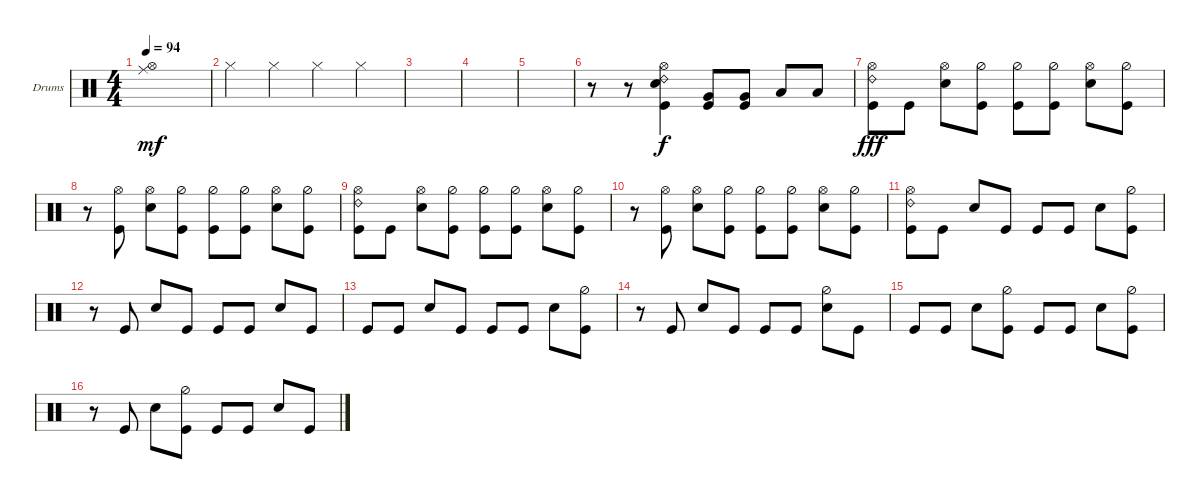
\defaultSystemsLayout 4
\bracketExtendMode groupsimilarinstruments
\firstSystemTrackNameOrientation horizontal
\otherSystemsTrackNameOrientation horizontal
\track ("Drumkit" "Drums") {instrument percussion}
\staff {score}
\articulation defaults
\ts (4 4)
\tempo 94
\clef neutral
\scale
0.333333
\ks c
("Ride (middle)" "Hi-Hat (open)").1{dy mf} |
\scale
0.333333 "Hi-Hat (closed)".4 "Hi-Hat (closed)".4 "Hi-Hat (closed)".4 "Hi-Hat (closed)".4 |
\scale
0.333333 |
\scale
0.333333 |
\scale
0.333333 |
\scale
0.333333 r.8 r.8 ("Kick (hit)" "Hi-Hat (open)" "Ride (bell) 2" "Snare (hit) 2").4{dy f} ("Very Low Tom (hit)" "Kick (hit)").8 ("Very Low Tom (hit)" "Kick (hit)").8 "Low Tom (hit)".8 "Low Tom (hit)".8 |
\scale
0.333333 ("Hi-Hat (open)" "Ride (bell) 2" "Kick (hit)").8{dy fff} "Kick (hit)".8 ("Hi-Hat (open)" "Snare (hit) 2").8 ("Hi-Hat (half)" "Kick (hit)").8 ("Hi-Hat (half)" "Kick (hit)").8 ("Hi-Hat (half)" "Kick (hit)").8 ("Hi-Hat (open)" "Snare (hit) 2").8 ("Hi-Hat (half)" "Kick (hit)").8 |
\scale
0.333333 r.8 ("Kick (hit)" "Hi-Hat (open)").8 ("Hi-Hat (open)" "Snare (hit) 2").8 ("Hi-Hat (half)" "Kick (hit)").8 ("Hi-Hat (half)" "Kick (hit)").8 ("Hi-Hat (half)" "Kick (hit)").8 ("Hi-Hat (open)" "Snare (hit) 2").8 ("Hi-Hat (half)" "Kick (hit)").8 |
\scale
0.333333 ("Hi-Hat (open)" "Ride (bell) 2" "Kick (hit)").8 "Kick (hit)".8 ("Hi-Hat (open)" "Snare (hit) 2").8 ("Hi-Hat (half)" "Kick (hit)").8 ("Hi-Hat (half)" "Kick (hit)").8 ("Hi-Hat (half)" "Kick (hit)").8 ("Hi-Hat (open)" "Snare (hit) 2").8 ("Hi-Hat (half)" "Kick (hit)").8 |
\scale
0.333333 r.8 ("Kick (hit)" "Hi-Hat (open)").8 ("Hi-Hat (open)" "Snare (hit) 2").8 ("Hi-Hat (half)" "Kick (hit)").8 ("Hi-Hat (half)" "Kick (hit)").8 ("Hi-Hat (half)" "Kick (hit)").8 ("Hi-Hat (open)" "Snare (hit) 2").8 ("Hi-Hat (half)" "Kick (hit)").8 |
\scale
0.333333 ("Hi-Hat (open)" "Ride (bell) 2" "Kick (hit)").8 "Kick (hit)".8 "Snare (hit) 2".8 "Kick (hit)".8 "Kick (hit)".8 "Kick (hit)".8 "Snare (hit) 2".8 ("Kick (hit)" "Hi-Hat (half)").8 |
\scale
0.333333 r.8 "Kick (hit)".8 "Snare (hit) 2".8 "Kick (hit)".8 "Kick (hit)".8 "Kick (hit)".8 "Snare (hit) 2".8 "Kick (hit)".8 |
\scale
0.333333 "Kick (hit)".8 "Kick (hit)".8 "Snare (hit) 2".8 "Kick (hit)".8 "Kick (hit)".8 "Kick (hit)".8 "Snare (hit) 2".8 ("Kick (hit)" "Hi-Hat (half)").8 |
\scale
0.333333 r.8 "Kick (hit)".8 "Snare (hit) 2".8 "Kick (hit)".8 "Kick (hit)".8 "Kick (hit)".8 ("Snare (hit) 2" "Hi-Hat (half)").8 "Kick (hit)".8 |
\scale
0.333333 "Kick (hit)".8 "Kick (hit)".8 "Snare (hit) 2".8 ("Kick (hit)" "Hi-Hat (half)").8 "Kick (hit)".8 "Kick (hit)".8 "Snare (hit) 2".8 ("Kick (hit)" "Hi-Hat (half)").8 |
\scale
0.333333 r.8 "Kick (hit)".8 "Snare (hit) 2".8 ("Kick (hit)" "Hi-Hat (half)").8 "Kick (hit)".8 "Kick (hit)".8 "Snare (hit) 2".8 "Kick (hit)".8
